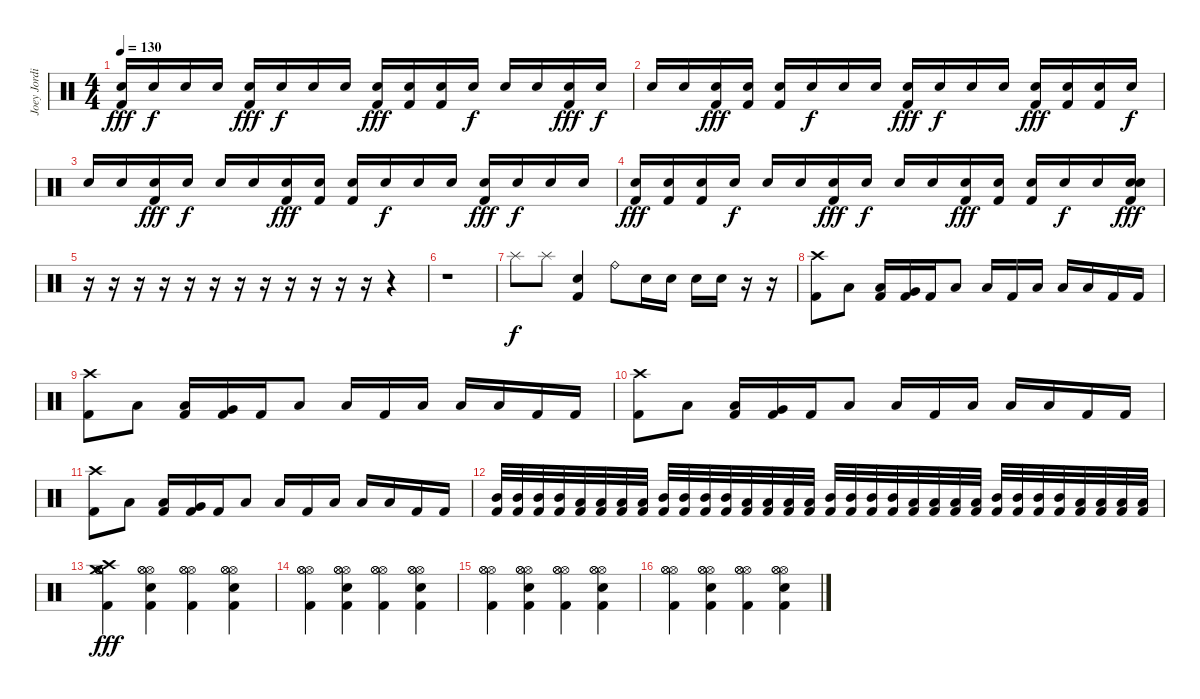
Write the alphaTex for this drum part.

\track ("Joey Jordison" "Joey Jordi") {instrument percussion}
\staff {score}
\articulation defaults
\ts (4 4)
\tempo 130
\clef neutral
\ks c
("Snare (hit)" "Kick (hit) 2").16{dy fff} "Snare (hit)".16{dy f} "Snare (hit)".16 "Snare (hit)".16 ("Snare (hit)" "Kick (hit) 2").16{dy fff} "Snare (hit)".16{dy f} "Snare (hit)".16 "Snare (hit)".16 ("Snare (hit)" "Kick (hit) 2").16{dy fff} ("Snare (hit)" "Kick (hit) 2").16 ("Snare (hit)" "Kick (hit) 2").16 "Snare (hit)".16{dy f} "Snare (hit)".16 "Snare (hit)".16 ("Snare (hit)" "Kick (hit) 2").16{dy fff} "Snare (hit)".16{dy f} |
"Snare (hit)".16 "Snare (hit)".16 ("Snare (hit)" "Kick (hit) 2").16{dy fff} ("Snare (hit)" "Kick (hit) 2").16 ("Snare (hit)" "Kick (hit) 2").16 "Snare (hit)".16{dy f} "Snare (hit)".16 "Snare (hit)".16 ("Snare (hit)" "Kick (hit) 2").16{dy fff} "Snare (hit)".16{dy f} "Snare (hit)".16 "Snare (hit)".16 ("Snare (hit)" "Kick (hit) 2").16{dy fff} ("Snare (hit)" "Kick (hit) 2").16 ("Snare (hit)" "Kick (hit) 2").16 "Snare (hit)".16{dy f} |
"Snare (hit)".16 "Snare (hit)".16 ("Snare (hit)" "Kick (hit) 2").16{dy fff} "Snare (hit)".16{dy f} "Snare (hit)".16 "Snare (hit)".16 ("Snare (hit)" "Kick (hit) 2").16{dy fff} ("Snare (hit)" "Kick (hit) 2").16 ("Snare (hit)" "Kick (hit) 2").16 "Snare (hit)".16{dy f} "Snare (hit)".16 "Snare (hit)".16 ("Snare (hit)" "Kick (hit) 2").16{dy fff} "Snare (hit)".16{dy f} "Snare (hit)".16 "Snare (hit)".16 |
("Snare (hit)" "Kick (hit) 2").16{dy fff} ("Snare (hit)" "Kick (hit) 2").16 ("Snare (hit)" "Kick (hit) 2").16 "Snare (hit)".16{dy f} "Snare (hit)".16 "Snare (hit)".16 ("Snare (hit)" "Kick (hit) 2").16{dy fff} "Snare (hit)".16{dy f} "Snare (hit)".16 "Snare (hit)".16 ("Snare (hit)" "Kick (hit) 2").16{dy fff} ("Snare (hit)" "Kick (hit) 2").16 ("Snare (hit)" "Kick (hit) 2").16 "Snare (hit)".16{dy f} "Snare (hit)".16 ("Snare (hit)" "Kick (hit) 2" "Electric Snare (hit)").16{dy fff} |
r.16 r.16 r.16 r.16 r.16 r.16 r.16 r.16 r.16 r.16 r.16 r.16 r.4 |
r.1 |
"Splash (hit)".8{dy f} "Splash (hit)".8 ("Electric Snare (hit)" "Kick (hit) 2").4 "Ride (bell)".8 "Electric Snare (hit)".16 "Electric Snare (hit)".16 "Electric Snare (hit)".16 "Electric Snare (hit)".16 r.16 r.16 |
("Crash high (hit)" "Kick (hit) 2").8 "Low Tom (hit)".8 ("Low Tom (hit)" "Kick (hit) 2").16 ("Very Low Tom (hit)" "Kick (hit) 2").16 "Kick (hit) 2".16 "Low Tom (hit)".8 "Low Tom (hit)".16 "Kick (hit) 2".16 "Low Floor Tom (hit)".16 "Low Floor Tom (hit)".16 "Low Floor Tom (hit)".16 "Kick (hit) 2".16 "Kick (hit) 2".16 |
("Crash high (hit)" "Kick (hit) 2").8 "Low Tom (hit)".8 ("Low Tom (hit)" "Kick (hit) 2").16 ("Very Low Tom (hit)" "Kick (hit) 2").16 "Kick (hit) 2".16 "Low Tom (hit)".8 "Low Tom (hit)".16 "Kick (hit) 2".16 "Low Floor Tom (hit)".16 "Low Floor Tom (hit)".16 "Low Floor Tom (hit)".16 "Kick (hit) 2".16 "Kick (hit) 2".16 |
("Crash high (hit)" "Kick (hit) 2").8 "Low Tom (hit)".8 ("Low Tom (hit)" "Kick (hit) 2").16 ("Very Low Tom (hit)" "Kick (hit) 2").16 "Kick (hit) 2".16 "Low Tom (hit)".8 "Low Tom (hit)".16 "Kick (hit) 2".16 "Low Floor Tom (hit)".16 "Low Floor Tom (hit)".16 "Low Floor Tom (hit)".16 "Kick (hit) 2".16 "Kick (hit) 2".16 |
("Crash high (hit)" "Kick (hit) 2").8 "Low Tom (hit)".8 ("Low Tom (hit)" "Kick (hit) 2").16 ("Very Low Tom (hit)" "Kick (hit) 2").16 "Kick (hit) 2".16 "Low Tom (hit)".8 "Low Tom (hit)".16 "Kick (hit) 2".16 "Low Floor Tom (hit)".16 "Low Floor Tom (hit)".16 "Low Floor Tom (hit)".16 "Kick (hit) 2".16 "Kick (hit) 2".16 |
("Mid Tom (hit)" "Kick (hit) 2").32 ("Mid Tom (hit)" "Kick (hit) 2").32 ("Mid Tom (hit)" "Kick (hit) 2").32 ("Mid Tom (hit)" "Kick (hit) 2").32 ("Low Tom (hit)" "Kick (hit) 2").32 ("Low Tom (hit)" "Kick (hit) 2").32 ("Low Tom (hit)" "Kick (hit) 2").32 ("Low Tom (hit)" "Kick (hit) 2").32 ("Mid Tom (hit)" "Kick (hit) 2").32 ("Mid Tom (hit)" "Kick (hit) 2").32 ("Mid Tom (hit)" "Kick (hit) 2").32 ("Mid Tom (hit)" "Kick (hit) 2").32 ("Low Tom (hit)" "Kick (hit) 2").32 ("Low Tom (hit)" "Kick (hit) 2").32 ("Low Tom (hit)" "Kick (hit) 2").32 ("Low Tom (hit)" "Kick (hit) 2").32 ("Mid Tom (hit)" "Kick (hit) 2").32 ("Mid Tom (hit)" "Kick (hit) 2").32 ("Mid Tom (hit)" "Kick (hit) 2").32 ("Mid Tom (hit)" "Kick (hit) 2").32 ("Low Tom (hit)" "Kick (hit) 2").32 ("Low Tom (hit)" "Kick (hit) 2").32 ("Low Tom (hit)" "Kick (hit) 2").32 ("Low Tom (hit)" "Kick (hit) 2").32 ("Mid Tom (hit)" "Kick (hit) 2").32 ("Mid Tom (hit)" "Kick (hit) 2").32 ("Mid Tom (hit)" "Kick (hit) 2").32 ("Mid Tom (hit)" "Kick (hit) 2").32 ("Low Tom (hit)" "Kick (hit) 2").32 ("Low Tom (hit)" "Kick (hit) 2").32 ("Low Tom (hit)" "Kick (hit) 2").32 ("Low Tom (hit)" "Kick (hit) 2").32 |
("Hi-Hat (open)" "Hi-Hat (open)" "Hi-Hat (open)" "Crash high (hit)" "Crash medium (hit)" "Kick (hit) 2").4{dy fff} ("Hi-Hat (open)" "Hi-Hat (open)" "Hi-Hat (open)" "Electric Snare (hit)" "Kick (hit) 2").4 ("Hi-Hat (open)" "Hi-Hat (open)" "Hi-Hat (open)" "Kick (hit) 2").4 ("Hi-Hat (open)" "Hi-Hat (open)" "Hi-Hat (open)" "Electric Snare (hit)" "Kick (hit) 2").4 |
("Hi-Hat (open)" "Hi-Hat (open)" "Hi-Hat (open)" "Kick (hit) 2").4 ("Hi-Hat (open)" "Hi-Hat (open)" "Hi-Hat (open)" "Electric Snare (hit)" "Kick (hit) 2").4 ("Hi-Hat (open)" "Hi-Hat (open)" "Hi-Hat (open)" "Kick (hit) 2").4 ("Hi-Hat (open)" "Hi-Hat (open)" "Hi-Hat (open)" "Electric Snare (hit)" "Kick (hit) 2").4 |
("Hi-Hat (open)" "Hi-Hat (open)" "Hi-Hat (open)" "Kick (hit) 2").4 ("Hi-Hat (open)" "Hi-Hat (open)" "Hi-Hat (open)" "Electric Snare (hit)" "Kick (hit) 2").4 ("Hi-Hat (open)" "Hi-Hat (open)" "Hi-Hat (open)" "Kick (hit) 2").4 ("Hi-Hat (open)" "Hi-Hat (open)" "Hi-Hat (open)" "Electric Snare (hit)" "Kick (hit) 2").4 |
("Hi-Hat (open)" "Hi-Hat (open)" "Hi-Hat (open)" "Kick (hit) 2").4 ("Hi-Hat (open)" "Hi-Hat (open)" "Hi-Hat (open)" "Electric Snare (hit)" "Kick (hit) 2").4 ("Hi-Hat (open)" "Hi-Hat (open)" "Hi-Hat (open)" "Kick (hit) 2").4 ("Hi-Hat (open)" "Hi-Hat (open)" "Hi-Hat (open)" "Electric Snare (hit)" "Kick (hit) 2").4
